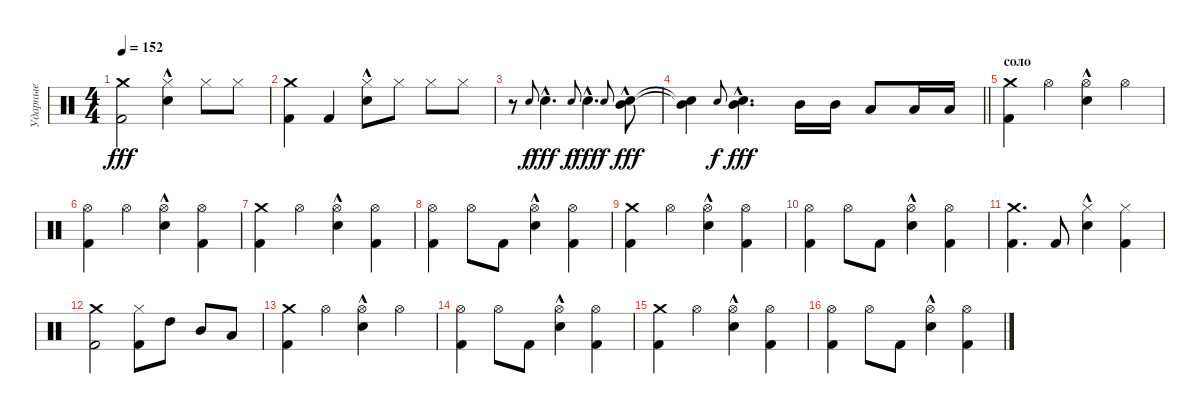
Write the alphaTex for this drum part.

\track ("Ударные" "Ударные") {instrument percussion}
\staff {score}
\articulation defaults
\ts (4 4)
\tempo 152
\clef neutral
\ks c
("Crash medium (hit)" "Kick (hit) 2").2{dy fff} ("Hi-Hat (closed)" "Electric Snare (hit)"{hac}).4 "Hi-Hat (closed)".8 "Hi-Hat (closed)".8 |
("Crash medium (hit)" "Kick (hit) 2").4 "Kick (hit) 2".4 ("Hi-Hat (closed)" "Electric Snare (hit)"{hac}).8 "Hi-Hat (closed)".8 "Hi-Hat (closed)".8 "Hi-Hat (closed)".8 |
r.8 "Electric Snare (hit)".8{gr onbeat dy f} "Electric Snare (hit)"{hac}.4{d dy fff} "Electric Snare (hit)".8{gr onbeat dy f} "Electric Snare (hit)"{hac}.4{d dy fff} "Electric Snare (hit)".8{gr onbeat dy f} ("Mid Tom (hit)" "Electric Snare (hit)"{hac}).8{dy fff} |
\barLineRight lightlight
("Mid Tom (hit)"{t} "Electric Snare (hit)"{t}).4 "Electric Snare (hit)".8{gr onbeat dy f} ("Mid Tom (hit)" "Electric Snare (hit)"{hac}).4{d dy fff} "Mid Tom (hit)".16 "Mid Tom (hit)".16 "Low Tom (hit)".8 "Low Tom (hit)".16 "Low Tom (hit)".16 |
\section ("" "соло")
("Crash medium (hit)" "Kick (hit) 2").4 "Hi-Hat (open)".4 ("Hi-Hat (open)" "Electric Snare (hit)"{hac}).4 "Hi-Hat (open)".4 |
("Hi-Hat (open)" "Kick (hit) 2").4 "Hi-Hat (open)".4 ("Hi-Hat (open)" "Electric Snare (hit)"{hac}).4 ("Hi-Hat (open)" "Kick (hit) 2").4 |
("Crash medium (hit)" "Kick (hit) 2").4 "Hi-Hat (open)".4 ("Hi-Hat (open)" "Electric Snare (hit)"{hac}).4 ("Hi-Hat (open)" "Kick (hit) 2").4 |
("Hi-Hat (open)" "Kick (hit) 2").4 "Hi-Hat (open)".8 "Kick (hit) 2".8 ("Hi-Hat (open)" "Electric Snare (hit)"{hac}).4 ("Hi-Hat (open)" "Kick (hit) 2").4 |
("Crash medium (hit)" "Kick (hit) 2").4 "Hi-Hat (open)".4 ("Hi-Hat (open)" "Electric Snare (hit)"{hac}).4 ("Hi-Hat (open)" "Kick (hit) 2").4 |
("Hi-Hat (open)" "Kick (hit) 2").4 "Hi-Hat (open)".8 "Kick (hit) 2".8 ("Hi-Hat (open)" "Electric Snare (hit)"{hac}).4 ("Hi-Hat (open)" "Kick (hit) 2").4 |
("Crash medium (hit)" "Kick (hit) 2").4{d} "Kick (hit) 2".8 ("Hi-Hat (closed)" "Electric Snare (hit)"{hac}).4 ("Hi-Hat (closed)" "Kick (hit) 2").4 |
("Crash medium (hit)" "Kick (hit) 2").2 ("Hi-Hat (closed)" "Kick (hit) 2").8 "High Tom (hit)".8 "Mid Tom (hit)".8 "Low Tom (hit)".8 |
("Crash medium (hit)" "Kick (hit) 2").4 "Hi-Hat (open)".4 ("Hi-Hat (open)" "Electric Snare (hit)"{hac}).4 "Hi-Hat (open)".4 |
("Hi-Hat (open)" "Kick (hit) 2").4 "Hi-Hat (open)".8 "Kick (hit) 2".8 ("Hi-Hat (open)" "Electric Snare (hit)"{hac}).4 ("Hi-Hat (open)" "Kick (hit) 2").4 |
("Crash medium (hit)" "Kick (hit) 2").4 "Hi-Hat (open)".4 ("Hi-Hat (open)" "Electric Snare (hit)"{hac}).4 ("Hi-Hat (open)" "Kick (hit) 2").4 |
("Hi-Hat (open)" "Kick (hit) 2").4 "Hi-Hat (open)".8 "Kick (hit) 2".8 ("Hi-Hat (open)" "Electric Snare (hit)"{hac}).4 ("Hi-Hat (open)" "Kick (hit) 2").4
